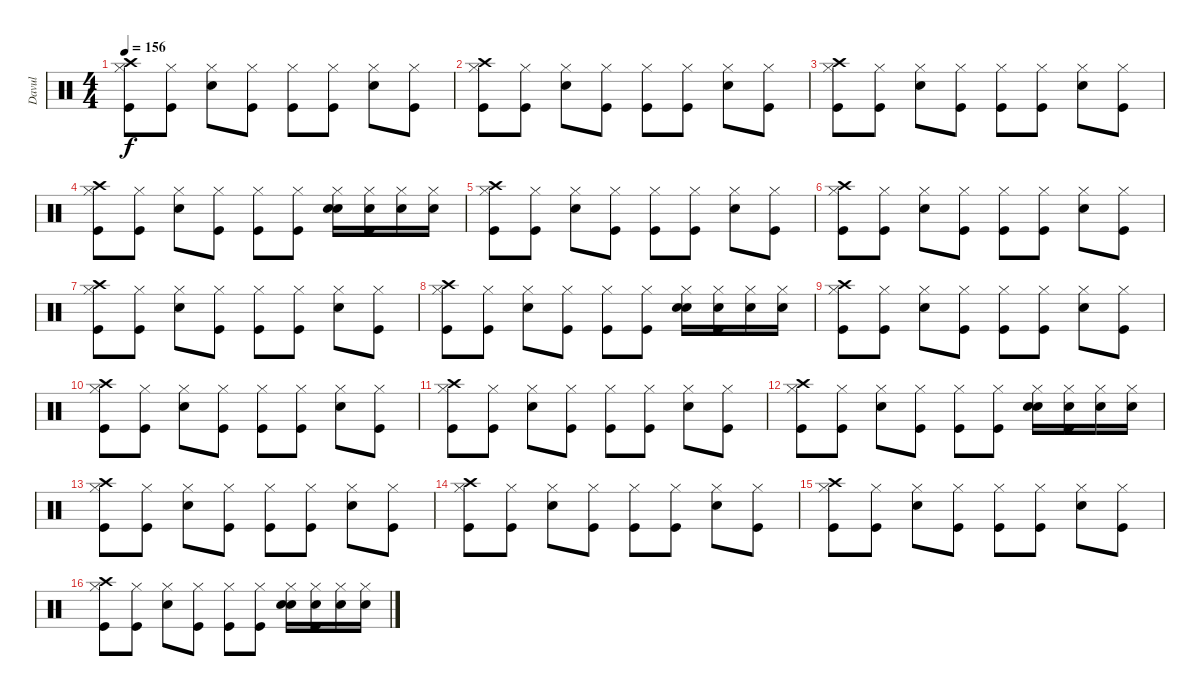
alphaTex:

\track ("Davul" "Davul") {instrument percussion}
\staff {score}
\articulation defaults
\ts (4 4)
\tempo 156
\clef neutral
\ks c
("Hi-Hat (closed)" "Kick (hit)" "Crash high (hit)").8{dy f} ("Hi-Hat (closed)" "Kick (hit)").8 ("Hi-Hat (closed)" "Snare (hit) 2").8 ("Hi-Hat (closed)" "Kick (hit)").8 ("Hi-Hat (closed)" "Kick (hit)").8 ("Hi-Hat (closed)" "Kick (hit)").8 ("Hi-Hat (closed)" "Snare (hit) 2").8 ("Hi-Hat (closed)" "Kick (hit)").8 |
("Hi-Hat (closed)" "Kick (hit)" "Crash high (hit)").8 ("Hi-Hat (closed)" "Kick (hit)").8 ("Hi-Hat (closed)" "Snare (hit) 2").8 ("Hi-Hat (closed)" "Kick (hit)").8 ("Hi-Hat (closed)" "Kick (hit)").8 ("Hi-Hat (closed)" "Kick (hit)").8 ("Hi-Hat (closed)" "Snare (hit) 2").8 ("Hi-Hat (closed)" "Kick (hit)").8 |
("Hi-Hat (closed)" "Kick (hit)" "Crash high (hit)").8 ("Hi-Hat (closed)" "Kick (hit)").8 ("Hi-Hat (closed)" "Snare (hit) 2").8 ("Hi-Hat (closed)" "Kick (hit)").8 ("Hi-Hat (closed)" "Kick (hit)").8 ("Hi-Hat (closed)" "Kick (hit)").8 ("Hi-Hat (closed)" "Snare (hit) 2").8 ("Hi-Hat (closed)" "Kick (hit)").8 |
("Hi-Hat (closed)" "Kick (hit)" "Crash high (hit)").8 ("Hi-Hat (closed)" "Kick (hit)").8 ("Hi-Hat (closed)" "Snare (hit) 2").8 ("Hi-Hat (closed)" "Kick (hit)").8 ("Hi-Hat (closed)" "Kick (hit)").8 ("Hi-Hat (closed)" "Kick (hit)").8 ("Hi-Hat (closed)" "Snare (hit) 2" "Snare (hit) 2").16 ("Hi-Hat (closed)" "Kick (hit)" "Snare (hit) 2").16 ("Hi-Hat (closed)" "Snare (hit) 2").16 ("Hi-Hat (closed)" "Snare (hit) 2").16 |
("Hi-Hat (closed)" "Kick (hit)" "Crash high (hit)").8 ("Hi-Hat (closed)" "Kick (hit)").8 ("Hi-Hat (closed)" "Snare (hit) 2").8 ("Hi-Hat (closed)" "Kick (hit)").8 ("Hi-Hat (closed)" "Kick (hit)").8 ("Hi-Hat (closed)" "Kick (hit)").8 ("Hi-Hat (closed)" "Snare (hit) 2").8 ("Hi-Hat (closed)" "Kick (hit)").8 |
("Hi-Hat (closed)" "Kick (hit)" "Crash high (hit)").8 ("Hi-Hat (closed)" "Kick (hit)").8 ("Hi-Hat (closed)" "Snare (hit) 2").8 ("Hi-Hat (closed)" "Kick (hit)").8 ("Hi-Hat (closed)" "Kick (hit)").8 ("Hi-Hat (closed)" "Kick (hit)").8 ("Hi-Hat (closed)" "Snare (hit) 2").8 ("Hi-Hat (closed)" "Kick (hit)").8 |
("Hi-Hat (closed)" "Kick (hit)" "Crash high (hit)").8 ("Hi-Hat (closed)" "Kick (hit)").8 ("Hi-Hat (closed)" "Snare (hit) 2").8 ("Hi-Hat (closed)" "Kick (hit)").8 ("Hi-Hat (closed)" "Kick (hit)").8 ("Hi-Hat (closed)" "Kick (hit)").8 ("Hi-Hat (closed)" "Snare (hit) 2").8 ("Hi-Hat (closed)" "Kick (hit)").8 |
("Hi-Hat (closed)" "Kick (hit)" "Crash high (hit)").8 ("Hi-Hat (closed)" "Kick (hit)").8 ("Hi-Hat (closed)" "Snare (hit) 2").8 ("Hi-Hat (closed)" "Kick (hit)").8 ("Hi-Hat (closed)" "Kick (hit)").8 ("Hi-Hat (closed)" "Kick (hit)").8 ("Hi-Hat (closed)" "Snare (hit) 2" "Snare (hit) 2").16 ("Hi-Hat (closed)" "Kick (hit)" "Snare (hit) 2").16 ("Hi-Hat (closed)" "Snare (hit) 2").16 ("Hi-Hat (closed)" "Snare (hit) 2").16 |
("Hi-Hat (closed)" "Kick (hit)" "Crash high (hit)").8 ("Hi-Hat (closed)" "Kick (hit)").8 ("Hi-Hat (closed)" "Snare (hit) 2").8 ("Hi-Hat (closed)" "Kick (hit)").8 ("Hi-Hat (closed)" "Kick (hit)").8 ("Hi-Hat (closed)" "Kick (hit)").8 ("Hi-Hat (closed)" "Snare (hit) 2").8 ("Hi-Hat (closed)" "Kick (hit)").8 |
("Hi-Hat (closed)" "Kick (hit)" "Crash high (hit)").8 ("Hi-Hat (closed)" "Kick (hit)").8 ("Hi-Hat (closed)" "Snare (hit) 2").8 ("Hi-Hat (closed)" "Kick (hit)").8 ("Hi-Hat (closed)" "Kick (hit)").8 ("Hi-Hat (closed)" "Kick (hit)").8 ("Hi-Hat (closed)" "Snare (hit) 2").8 ("Hi-Hat (closed)" "Kick (hit)").8 |
("Hi-Hat (closed)" "Kick (hit)" "Crash high (hit)").8 ("Hi-Hat (closed)" "Kick (hit)").8 ("Hi-Hat (closed)" "Snare (hit) 2").8 ("Hi-Hat (closed)" "Kick (hit)").8 ("Hi-Hat (closed)" "Kick (hit)").8 ("Hi-Hat (closed)" "Kick (hit)").8 ("Hi-Hat (closed)" "Snare (hit) 2").8 ("Hi-Hat (closed)" "Kick (hit)").8 |
("Hi-Hat (closed)" "Kick (hit)" "Crash high (hit)").8 ("Hi-Hat (closed)" "Kick (hit)").8 ("Hi-Hat (closed)" "Snare (hit) 2").8 ("Hi-Hat (closed)" "Kick (hit)").8 ("Hi-Hat (closed)" "Kick (hit)").8 ("Hi-Hat (closed)" "Kick (hit)").8 ("Hi-Hat (closed)" "Snare (hit) 2" "Snare (hit) 2").16 ("Hi-Hat (closed)" "Kick (hit)" "Snare (hit) 2").16 ("Hi-Hat (closed)" "Snare (hit) 2").16 ("Hi-Hat (closed)" "Snare (hit) 2").16 |
("Hi-Hat (closed)" "Kick (hit)" "Crash high (hit)").8 ("Hi-Hat (closed)" "Kick (hit)").8 ("Hi-Hat (closed)" "Snare (hit) 2").8 ("Hi-Hat (closed)" "Kick (hit)").8 ("Hi-Hat (closed)" "Kick (hit)").8 ("Hi-Hat (closed)" "Kick (hit)").8 ("Hi-Hat (closed)" "Snare (hit) 2").8 ("Hi-Hat (closed)" "Kick (hit)").8 |
("Hi-Hat (closed)" "Kick (hit)" "Crash high (hit)").8 ("Hi-Hat (closed)" "Kick (hit)").8 ("Hi-Hat (closed)" "Snare (hit) 2").8 ("Hi-Hat (closed)" "Kick (hit)").8 ("Hi-Hat (closed)" "Kick (hit)").8 ("Hi-Hat (closed)" "Kick (hit)").8 ("Hi-Hat (closed)" "Snare (hit) 2").8 ("Hi-Hat (closed)" "Kick (hit)").8 |
("Hi-Hat (closed)" "Kick (hit)" "Crash high (hit)").8 ("Hi-Hat (closed)" "Kick (hit)").8 ("Hi-Hat (closed)" "Snare (hit) 2").8 ("Hi-Hat (closed)" "Kick (hit)").8 ("Hi-Hat (closed)" "Kick (hit)").8 ("Hi-Hat (closed)" "Kick (hit)").8 ("Hi-Hat (closed)" "Snare (hit) 2").8 ("Hi-Hat (closed)" "Kick (hit)").8 |
("Hi-Hat (closed)" "Kick (hit)" "Crash high (hit)").8 ("Hi-Hat (closed)" "Kick (hit)").8 ("Hi-Hat (closed)" "Snare (hit) 2").8 ("Hi-Hat (closed)" "Kick (hit)").8 ("Hi-Hat (closed)" "Kick (hit)").8 ("Hi-Hat (closed)" "Kick (hit)").8 ("Hi-Hat (closed)" "Snare (hit) 2" "Snare (hit) 2").16 ("Hi-Hat (closed)" "Kick (hit)" "Snare (hit) 2").16 ("Hi-Hat (closed)" "Snare (hit) 2").16 ("Hi-Hat (closed)" "Snare (hit) 2").16
